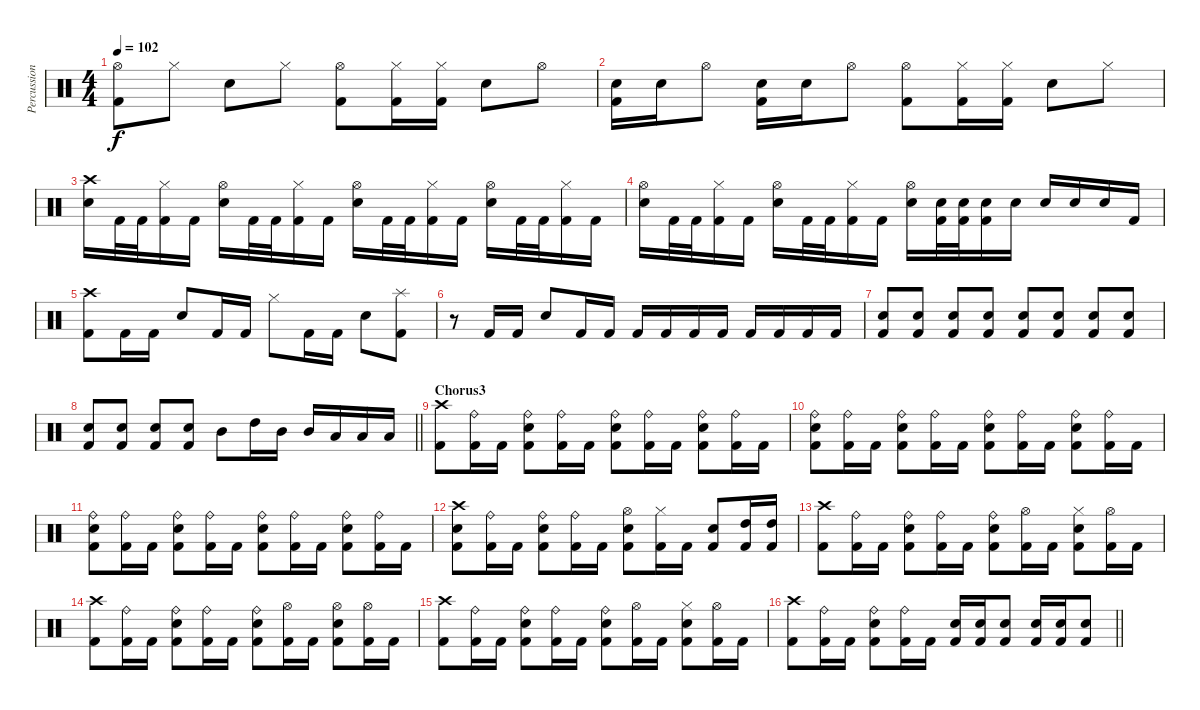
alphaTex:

\track ("Percussion" "Percussion") {instrument percussion}
\staff {score}
\articulation defaults
\ts (4 4)
\tempo 102
\clef neutral
\ks c
("Hi-Hat (open)" "Kick (hit) 2").8{dy f} "Hi-Hat (closed)".8 "Snare (hit) 2".8 "Hi-Hat (closed)".8 ("Hi-Hat (open)" "Kick (hit) 2").8 ("Hi-Hat (closed)" "Kick (hit) 2").16 ("Hi-Hat (closed)" "Kick (hit) 2").16 "Snare (hit) 2".8 "Hi-Hat (open)".8 |
("Snare (hit) 2" "Kick (hit) 2").16 "Snare (hit) 2".16 "Hi-Hat (open)".8 ("Snare (hit) 2" "Kick (hit) 2").16 "Snare (hit) 2".16 "Hi-Hat (open)".8 ("Hi-Hat (open)" "Kick (hit) 2").8 ("Hi-Hat (closed)" "Kick (hit) 2").16 ("Hi-Hat (closed)" "Kick (hit) 2").16 "Snare (hit) 2".8 "Hi-Hat (closed)".8 |
("Crash high (hit)" "Snare (hit) 2").16 "Kick (hit) 2".32 "Kick (hit) 2".32 ("Hi-Hat (closed)" "Kick (hit) 2").16 "Kick (hit) 2".16 ("Hi-Hat (open)" "Snare (hit) 2").16 "Kick (hit) 2".32 "Kick (hit) 2".32 ("Hi-Hat (closed)" "Kick (hit) 2").16 "Kick (hit) 2".16 ("Hi-Hat (open)" "Snare (hit) 2").16 "Kick (hit) 2".32 "Kick (hit) 2".32 ("Hi-Hat (closed)" "Kick (hit) 2").16 "Kick (hit) 2".16 ("Hi-Hat (open)" "Snare (hit) 2").16 "Kick (hit) 2".32 "Kick (hit) 2".32 ("Hi-Hat (closed)" "Kick (hit) 2").16 "Kick (hit) 2".16 |
("Hi-Hat (open)" "Snare (hit) 2").16 "Kick (hit) 2".32 "Kick (hit) 2".32 ("Hi-Hat (closed)" "Kick (hit) 2").16 "Kick (hit) 2".16 ("Hi-Hat (open)" "Snare (hit) 2").16 "Kick (hit) 2".32 "Kick (hit) 2".32 ("Hi-Hat (closed)" "Kick (hit) 2").16 "Kick (hit) 2".16 ("Hi-Hat (open)" "Snare (hit) 2").16 ("Snare (hit) 2" "Kick (hit) 2").32 ("Snare (hit) 2" "Kick (hit) 2").32 ("Snare (hit) 2" "Kick (hit) 2").16 "Snare (hit) 2".16 "Snare (hit) 2".16 "Snare (hit) 2".16 "Snare (hit) 2".16 "Kick (hit) 2".16 |
("Crash high (hit)" "Kick (hit) 2").8 "Kick (hit) 2".16 "Kick (hit) 2".16 "Snare (hit) 2".8 "Kick (hit) 2".16 "Kick (hit) 2".16 "Hi-Hat (closed)".8 "Kick (hit) 2".16 "Kick (hit) 2".16 "Snare (hit) 2".8 ("Splash (hit)" "Kick (hit) 2").8 |
r.8 "Kick (hit) 2".16 "Kick (hit) 2".16 "Snare (hit) 2".8 "Kick (hit) 2".16 "Kick (hit) 2".16 "Kick (hit) 2".16 "Kick (hit) 2".16 "Kick (hit) 2".16 "Kick (hit) 2".16 "Kick (hit) 2".16 "Kick (hit) 2".16 "Kick (hit) 2".16 "Kick (hit) 2".16 |
("Snare (hit) 2" "Kick (hit) 2").8 ("Snare (hit) 2" "Kick (hit) 2").8 ("Snare (hit) 2" "Kick (hit) 2").8 ("Snare (hit) 2" "Kick (hit) 2").8 ("Snare (hit) 2" "Kick (hit) 2").8 ("Snare (hit) 2" "Kick (hit) 2").8 ("Snare (hit) 2" "Kick (hit) 2").8 ("Snare (hit) 2" "Kick (hit) 2").8 |
\barLineRight lightlight
("Snare (hit) 2" "Kick (hit) 2").8 ("Snare (hit) 2" "Kick (hit) 2").8 ("Snare (hit) 2" "Kick (hit) 2").8 ("Snare (hit) 2" "Kick (hit) 2").8 "Mid Tom (hit)".8 "High Tom (hit)".16 "Mid Tom (hit)".16 "Mid Tom (hit)".16 "Low Tom (hit)".16 "Low Tom (hit)".16 "Low Tom (hit)".16 |
\section ("" "Chorus3")
("Crash high (hit)" "Kick (hit) 2").8 ("Ride (bell)" "Kick (hit) 2").16 "Kick (hit) 2".16 ("Ride (bell)" "Snare (hit) 2" "Kick (hit) 2").8 ("Ride (bell)" "Kick (hit) 2").16 "Kick (hit) 2".16 ("Ride (bell)" "Snare (hit) 2" "Kick (hit) 2").8 ("Ride (bell)" "Kick (hit) 2").16 "Kick (hit) 2".16 ("Ride (bell)" "Snare (hit) 2" "Kick (hit) 2").8 ("Ride (bell)" "Kick (hit) 2").16 "Kick (hit) 2".16 |
("Ride (bell)" "Snare (hit) 2" "Kick (hit) 2").8 ("Ride (bell)" "Kick (hit) 2").16 "Kick (hit) 2".16 ("Ride (bell)" "Snare (hit) 2" "Kick (hit) 2").8 ("Ride (bell)" "Kick (hit) 2").16 "Kick (hit) 2".16 ("Ride (bell)" "Snare (hit) 2" "Kick (hit) 2").8 ("Ride (bell)" "Kick (hit) 2").16 "Kick (hit) 2".16 ("Ride (bell)" "Snare (hit) 2" "Kick (hit) 2").8 ("Ride (bell)" "Kick (hit) 2").16 "Kick (hit) 2".16 |
("Ride (bell)" "Snare (hit) 2" "Kick (hit) 2").8 ("Ride (bell)" "Kick (hit) 2").16 "Kick (hit) 2".16 ("Ride (bell)" "Snare (hit) 2" "Kick (hit) 2").8 ("Ride (bell)" "Kick (hit) 2").16 "Kick (hit) 2".16 ("Ride (bell)" "Snare (hit) 2" "Kick (hit) 2").8 ("Ride (bell)" "Kick (hit) 2").16 "Kick (hit) 2".16 ("Ride (bell)" "Snare (hit) 2" "Kick (hit) 2").8 ("Ride (bell)" "Kick (hit) 2").16 "Kick (hit) 2".16 |
("Crash high (hit)" "Snare (hit) 2" "Kick (hit) 2").8 ("Ride (bell)" "Kick (hit) 2").16 "Kick (hit) 2".16 ("Ride (bell)" "Snare (hit) 2" "Kick (hit) 2").8 ("Ride (bell)" "Kick (hit) 2").16 "Kick (hit) 2".16 ("Hi-Hat (open)" "Snare (hit) 2" "Kick (hit) 2").8 ("Hi-Hat (closed)" "Kick (hit) 2").16 "Kick (hit) 2".16 ("Snare (hit) 2" "Kick (hit) 2").8 ("High Tom (hit)" "Kick (hit) 2").16 ("High Tom (hit)" "Kick (hit) 2").16 |
("Crash high (hit)" "Kick (hit) 2").8 ("Ride (bell)" "Kick (hit) 2").16 "Kick (hit) 2".16 ("Ride (bell)" "Snare (hit) 2" "Kick (hit) 2").8 ("Ride (bell)" "Kick (hit) 2").16 "Kick (hit) 2".16 ("Ride (bell)" "Snare (hit) 2" "Kick (hit) 2").8 ("Hi-Hat (open)" "Kick (hit) 2").16 "Kick (hit) 2".16 ("Hi-Hat (closed)" "Snare (hit) 2" "Kick (hit) 2").8 ("Hi-Hat (open)" "Kick (hit) 2").16 "Kick (hit) 2".16 |
("Crash high (hit)" "Kick (hit) 2").8 ("Ride (bell)" "Kick (hit) 2").16 "Kick (hit) 2".16 ("Ride (bell)" "Snare (hit) 2" "Kick (hit) 2").8 ("Ride (bell)" "Kick (hit) 2").16 "Kick (hit) 2".16 ("Ride (bell)" "Snare (hit) 2" "Kick (hit) 2").8 ("Hi-Hat (open)" "Kick (hit) 2").16 "Kick (hit) 2".16 ("Hi-Hat (open)" "Snare (hit) 2" "Kick (hit) 2").8 ("Hi-Hat (open)" "Kick (hit) 2").16 "Kick (hit) 2".16 |
("Crash high (hit)" "Kick (hit) 2").8 ("Ride (bell)" "Kick (hit) 2").16 "Kick (hit) 2".16 ("Ride (bell)" "Snare (hit) 2" "Kick (hit) 2").8 ("Ride (bell)" "Kick (hit) 2").16 "Kick (hit) 2".16 ("Ride (bell)" "Snare (hit) 2" "Kick (hit) 2").8 ("Hi-Hat (open)" "Kick (hit) 2").16 "Kick (hit) 2".16 ("Hi-Hat (closed)" "Snare (hit) 2" "Kick (hit) 2").8 ("Hi-Hat (open)" "Kick (hit) 2").16 "Kick (hit) 2".16 |
\barLineRight lightlight
("Crash high (hit)" "Kick (hit) 2").8 ("Ride (bell)" "Kick (hit) 2").16 "Kick (hit) 2".16 ("Ride (bell)" "Snare (hit) 2" "Kick (hit) 2").8 ("Ride (bell)" "Kick (hit) 2").16 "Kick (hit) 2".16 ("Snare (hit) 2" "Kick (hit) 2").16 ("Snare (hit) 2" "Kick (hit) 2").16 ("Snare (hit) 2" "Kick (hit) 2").8 ("Snare (hit) 2" "Kick (hit) 2").16 ("Snare (hit) 2" "Kick (hit) 2").16 ("Snare (hit) 2" "Kick (hit) 2").8
